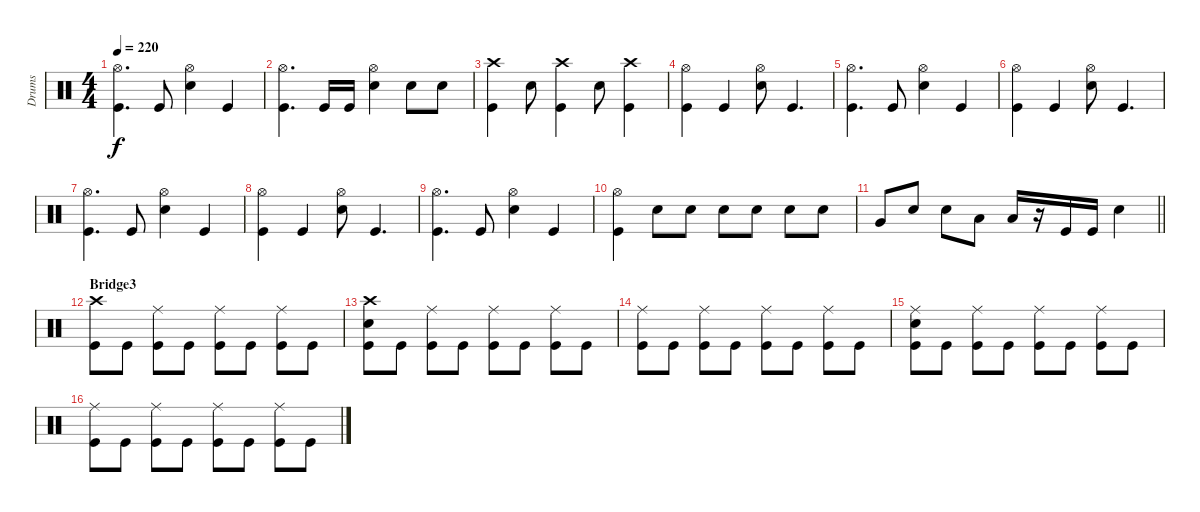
\track ("Drums" "Drums") {instrument percussion}
\staff {score}
\articulation defaults
\ts (4 4)
\tempo 220
\clef neutral
\ks c
("Hi-Hat (open)" "Kick (hit)").4{d dy f} "Kick (hit)".8 ("Hi-Hat (open)" "Snare (hit) 2").4 "Kick (hit)".4 |
("Hi-Hat (open)" "Kick (hit)").4{d} "Kick (hit)".16 "Kick (hit)".16 ("Hi-Hat (open)" "Snare (hit) 2").4 "Snare (hit) 2".8 "Snare (hit) 2".8 |
("Crash high (hit)" "Kick (hit)").4 "Snare (hit) 2".8 ("Crash high (hit)" "Kick (hit)").4 "Snare (hit) 2".8 ("Crash high (hit)" "Kick (hit)").4 |
("Hi-Hat (open)" "Kick (hit)").4 "Kick (hit)".4 ("Hi-Hat (open)" "Snare (hit) 2").8 "Kick (hit)".4{d} |
("Hi-Hat (open)" "Kick (hit)").4{d} "Kick (hit)".8 ("Hi-Hat (open)" "Snare (hit) 2").4 "Kick (hit)".4 |
("Hi-Hat (open)" "Kick (hit)").4 "Kick (hit)".4 ("Hi-Hat (open)" "Snare (hit) 2").8 "Kick (hit)".4{d} |
("Hi-Hat (open)" "Kick (hit)").4{d} "Kick (hit)".8 ("Hi-Hat (open)" "Snare (hit) 2").4 "Kick (hit)".4 |
("Hi-Hat (open)" "Kick (hit)").4 "Kick (hit)".4 ("Hi-Hat (open)" "Snare (hit) 2").8 "Kick (hit)".4{d} |
("Hi-Hat (open)" "Kick (hit)").4{d} "Kick (hit)".8 ("Hi-Hat (open)" "Snare (hit) 2").4 "Kick (hit)".4 |
("Hi-Hat (open)" "Kick (hit)").4 "Snare (hit) 2".8 "Snare (hit) 2".8 "Snare (hit) 2".8 "Snare (hit) 2".8 "Snare (hit) 2".8 "Snare (hit) 2".8 |
\barLineRight lightlight "Very Low Tom (hit)".8 "Snare (hit) 2".8 "Snare (hit) 2".8 "Low Floor Tom (hit)".8 "Low Floor Tom (hit)".16
r.16 "Kick (hit)".16 "Kick (hit)".16 "Snare (hit) 2".4 |
\section ("" "Bridge3")
("Crash high (hit)" "Kick (hit)").8 "Kick (hit)".8 ("Ride (middle)" "Kick (hit)").8 "Kick (hit)".8 ("Ride (middle)" "Kick (hit)").8 "Kick (hit)".8 ("Ride (middle)" "Kick (hit)").8 "Kick (hit)".8 |
("Crash high (hit)" "Snare (hit) 2" "Kick (hit)").8 "Kick (hit)".8 ("Ride (middle)" "Kick (hit)").8 "Kick (hit)".8 ("Ride (middle)" "Kick (hit)").8 "Kick (hit)".8 ("Ride (middle)" "Kick (hit)").8 "Kick (hit)".8 |
("Ride (middle)" "Kick (hit)").8 "Kick (hit)".8 ("Ride (middle)" "Kick (hit)").8 "Kick (hit)".8 ("Ride (middle)" "Kick (hit)").8 "Kick (hit)".8 ("Ride (middle)" "Kick (hit)").8 "Kick (hit)".8 |
("Ride (middle)" "Snare (hit) 2" "Kick (hit)").8 "Kick (hit)".8 ("Ride (middle)" "Kick (hit)").8 "Kick (hit)".8 ("Ride (middle)" "Kick (hit)").8 "Kick (hit)".8 ("Ride (middle)" "Kick (hit)").8 "Kick (hit)".8 |
("Ride (middle)" "Kick (hit)").8 "Kick (hit)".8 ("Ride (middle)" "Kick (hit)").8 "Kick (hit)".8 ("Ride (middle)" "Kick (hit)").8 "Kick (hit)".8 ("Ride (middle)" "Kick (hit)").8 "Kick (hit)".8
